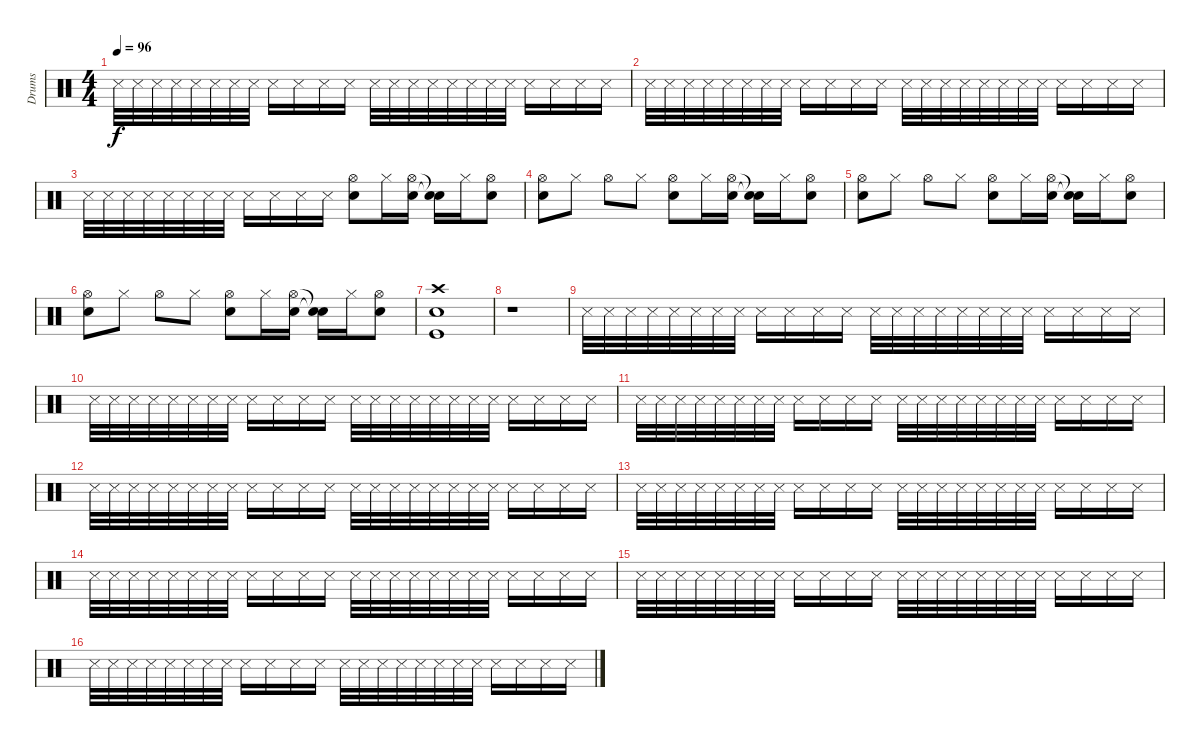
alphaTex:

\track ("Drums" "Drums") {instrument percussion}
\staff {score}
\articulation defaults
\ts (4 4)
\tempo 96
\clef neutral
\ks c "Metronome (hit)".32{dy f} "Metronome (hit)".32 "Metronome (hit)".32 "Metronome (hit)".32 "Metronome (hit)".32 "Metronome (hit)".32 "Metronome (hit)".32 "Metronome (hit)".32 "Metronome (hit)".16 "Metronome (hit)".16 "Metronome (hit)".16 "Metronome (hit)".16 "Metronome (hit)".32 "Metronome (hit)".32 "Metronome (hit)".32 "Metronome (hit)".32 "Metronome (hit)".32 "Metronome (hit)".32 "Metronome (hit)".32 "Metronome (hit)".32 "Metronome (hit)".16 "Metronome (hit)".16 "Metronome (hit)".16 "Metronome (hit)".16
|
"Metronome (hit)".32 "Metronome (hit)".32 "Metronome (hit)".32 "Metronome (hit)".32 "Metronome (hit)".32 "Metronome (hit)".32 "Metronome (hit)".32 "Metronome (hit)".32 "Metronome (hit)".16 "Metronome (hit)".16 "Metronome (hit)".16 "Metronome (hit)".16 "Metronome (hit)".32 "Metronome (hit)".32 "Metronome (hit)".32 "Metronome (hit)".32 "Metronome (hit)".32 "Metronome (hit)".32 "Metronome (hit)".32 "Metronome (hit)".32 "Metronome (hit)".16 "Metronome (hit)".16 "Metronome (hit)".16 "Metronome (hit)".16 |
"Metronome (hit)".32 "Metronome (hit)".32 "Metronome (hit)".32 "Metronome (hit)".32 "Metronome (hit)".32 "Metronome (hit)".32 "Metronome (hit)".32 "Metronome (hit)".32 "Metronome (hit)".16 "Metronome (hit)".16 "Metronome (hit)".16 "Metronome (hit)".16 ("Snare (hit) 2" "Hi-Hat (open)").8 "Hi-Hat (closed)".16 ("Snare (hit) 2" "Hi-Hat (open)").16 ("Snare (hit)"{t} "Snare (hit)"{t}).16 "Hi-Hat (closed)".16 ("Snare (hit) 2" "Hi-Hat (open)").8 |
("Snare (hit) 2" "Hi-Hat (open)").8 "Hi-Hat (closed)".8 "Hi-Hat (open)".8 "Hi-Hat (closed)".8 ("Snare (hit) 2" "Hi-Hat (open)").8 "Hi-Hat (closed)".16 ("Snare (hit) 2" "Hi-Hat (open)").16 ("Snare (hit)"{t} "Snare (hit)"{t}).16 "Hi-Hat (closed)".16 ("Snare (hit) 2" "Hi-Hat (open)").8 |
("Snare (hit) 2" "Hi-Hat (open)").8 "Hi-Hat (closed)".8 "Hi-Hat (open)".8 "Hi-Hat (closed)".8 ("Snare (hit) 2" "Hi-Hat (open)").8 "Hi-Hat (closed)".16 ("Snare (hit) 2" "Hi-Hat (open)").16 ("Snare (hit)"{t} "Snare (hit)"{t}).16 "Hi-Hat (closed)".16 ("Snare (hit) 2" "Hi-Hat (open)").8 |
("Snare (hit) 2" "Hi-Hat (open)").8 "Hi-Hat (closed)".8 "Hi-Hat (open)".8 "Hi-Hat (closed)".8 ("Snare (hit) 2" "Hi-Hat (open)").8 "Hi-Hat (closed)".16 ("Snare (hit) 2" "Hi-Hat (open)").16 ("Snare (hit)"{t} "Snare (hit)"{t}).16 "Hi-Hat (closed)".16 ("Snare (hit) 2" "Hi-Hat (open)").8 |
("Crash high (hit)" "Snare (hit) 2" "Kick (hit)").1 |
r.1 |
"Metronome (hit)".32 "Metronome (hit)".32 "Metronome (hit)".32 "Metronome (hit)".32 "Metronome (hit)".32 "Metronome (hit)".32 "Metronome (hit)".32 "Metronome (hit)".32 "Metronome (hit)".16 "Metronome (hit)".16 "Metronome (hit)".16 "Metronome (hit)".16 "Metronome (hit)".32 "Metronome (hit)".32 "Metronome (hit)".32 "Metronome (hit)".32 "Metronome (hit)".32 "Metronome (hit)".32 "Metronome (hit)".32 "Metronome (hit)".32 "Metronome (hit)".16 "Metronome (hit)".16 "Metronome (hit)".16 "Metronome (hit)".16 |
"Metronome (hit)".32 "Metronome (hit)".32 "Metronome (hit)".32 "Metronome (hit)".32 "Metronome (hit)".32 "Metronome (hit)".32 "Metronome (hit)".32 "Metronome (hit)".32 "Metronome (hit)".16 "Metronome (hit)".16 "Metronome (hit)".16 "Metronome (hit)".16 "Metronome (hit)".32 "Metronome (hit)".32 "Metronome (hit)".32 "Metronome (hit)".32 "Metronome (hit)".32 "Metronome (hit)".32 "Metronome (hit)".32 "Metronome (hit)".32 "Metronome (hit)".16 "Metronome (hit)".16 "Metronome (hit)".16 "Metronome (hit)".16 |
"Metronome (hit)".32 "Metronome (hit)".32 "Metronome (hit)".32 "Metronome (hit)".32 "Metronome (hit)".32 "Metronome (hit)".32 "Metronome (hit)".32 "Metronome (hit)".32 "Metronome (hit)".16 "Metronome (hit)".16 "Metronome (hit)".16 "Metronome (hit)".16 "Metronome (hit)".32 "Metronome (hit)".32 "Metronome (hit)".32 "Metronome (hit)".32 "Metronome (hit)".32 "Metronome (hit)".32 "Metronome (hit)".32 "Metronome (hit)".32 "Metronome (hit)".16 "Metronome (hit)".16 "Metronome (hit)".16 "Metronome (hit)".16 |
"Metronome (hit)".32 "Metronome (hit)".32 "Metronome (hit)".32 "Metronome (hit)".32 "Metronome (hit)".32 "Metronome (hit)".32 "Metronome (hit)".32 "Metronome (hit)".32 "Metronome (hit)".16 "Metronome (hit)".16 "Metronome (hit)".16 "Metronome (hit)".16 "Metronome (hit)".32 "Metronome (hit)".32 "Metronome (hit)".32 "Metronome (hit)".32 "Metronome (hit)".32 "Metronome (hit)".32 "Metronome (hit)".32 "Metronome (hit)".32 "Metronome (hit)".16 "Metronome (hit)".16 "Metronome (hit)".16 "Metronome (hit)".16 |
"Metronome (hit)".32 "Metronome (hit)".32 "Metronome (hit)".32 "Metronome (hit)".32 "Metronome (hit)".32 "Metronome (hit)".32 "Metronome (hit)".32 "Metronome (hit)".32 "Metronome (hit)".16 "Metronome (hit)".16 "Metronome (hit)".16 "Metronome (hit)".16 "Metronome (hit)".32 "Metronome (hit)".32 "Metronome (hit)".32 "Metronome (hit)".32 "Metronome (hit)".32 "Metronome (hit)".32 "Metronome (hit)".32 "Metronome (hit)".32 "Metronome (hit)".16 "Metronome (hit)".16 "Metronome (hit)".16 "Metronome (hit)".16 |
"Metronome (hit)".32 "Metronome (hit)".32 "Metronome (hit)".32 "Metronome (hit)".32 "Metronome (hit)".32 "Metronome (hit)".32 "Metronome (hit)".32 "Metronome (hit)".32 "Metronome (hit)".16 "Metronome (hit)".16 "Metronome (hit)".16 "Metronome (hit)".16 "Metronome (hit)".32 "Metronome (hit)".32 "Metronome (hit)".32 "Metronome (hit)".32 "Metronome (hit)".32 "Metronome (hit)".32 "Metronome (hit)".32 "Metronome (hit)".32 "Metronome (hit)".16 "Metronome (hit)".16 "Metronome (hit)".16 "Metronome (hit)".16 |
"Metronome (hit)".32 "Metronome (hit)".32 "Metronome (hit)".32 "Metronome (hit)".32 "Metronome (hit)".32 "Metronome (hit)".32 "Metronome (hit)".32 "Metronome (hit)".32 "Metronome (hit)".16 "Metronome (hit)".16 "Metronome (hit)".16 "Metronome (hit)".16 "Metronome (hit)".32 "Metronome (hit)".32 "Metronome (hit)".32 "Metronome (hit)".32 "Metronome (hit)".32 "Metronome (hit)".32 "Metronome (hit)".32 "Metronome (hit)".32 "Metronome (hit)".16 "Metronome (hit)".16 "Metronome (hit)".16 "Metronome (hit)".16 |
"Metronome (hit)".32 "Metronome (hit)".32 "Metronome (hit)".32 "Metronome (hit)".32 "Metronome (hit)".32 "Metronome (hit)".32 "Metronome (hit)".32 "Metronome (hit)".32 "Metronome (hit)".16 "Metronome (hit)".16 "Metronome (hit)".16 "Metronome (hit)".16 "Metronome (hit)".32 "Metronome (hit)".32 "Metronome (hit)".32 "Metronome (hit)".32 "Metronome (hit)".32 "Metronome (hit)".32 "Metronome (hit)".32 "Metronome (hit)".32 "Metronome (hit)".16 "Metronome (hit)".16 "Metronome (hit)".16 "Metronome (hit)".16
